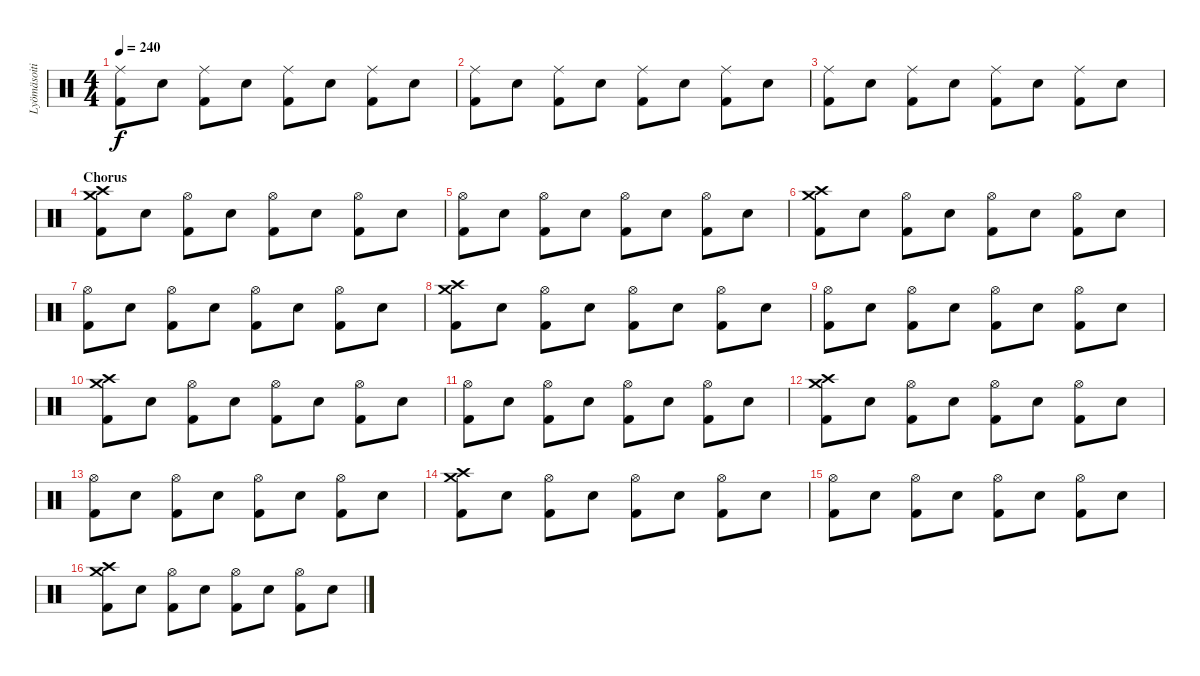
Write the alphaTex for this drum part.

\track ("Lyömäsoitin" "Lyömäsoiti") {instrument percussion}
\staff {score}
\articulation defaults
\ts (4 4)
\tempo 240
\clef neutral
\ks c
("Ride (middle)" "Kick (hit) 2").8{dy f} "Snare (hit) 2".8 ("Ride (middle)" "Kick (hit) 2").8 "Snare (hit) 2".8 ("Ride (middle)" "Kick (hit) 2").8 "Snare (hit) 2".8 ("Ride (middle)" "Kick (hit) 2").8 "Snare (hit) 2".8 |
("Ride (middle)" "Kick (hit) 2").8 "Snare (hit) 2".8 ("Ride (middle)" "Kick (hit) 2").8 "Snare (hit) 2".8 ("Ride (middle)" "Kick (hit) 2").8 "Snare (hit) 2".8 ("Ride (middle)" "Kick (hit) 2").8 "Snare (hit) 2".8 |
("Ride (middle)" "Kick (hit) 2").8 "Snare (hit) 2".8 ("Ride (middle)" "Kick (hit) 2").8 "Snare (hit) 2".8 ("Ride (middle)" "Kick (hit) 2").8 "Snare (hit) 2".8 ("Ride (middle)" "Kick (hit) 2").8 "Snare (hit) 2".8 |
\section ("" "Chorus")
("Crash high (hit)" "Crash medium (hit)" "Kick (hit) 2").8 "Snare (hit) 2".8 ("Hi-Hat (open)" "Kick (hit) 2").8 "Snare (hit) 2".8 ("Hi-Hat (open)" "Kick (hit) 2").8 "Snare (hit) 2".8 ("Hi-Hat (open)" "Kick (hit) 2").8 "Snare (hit) 2".8 |
("Hi-Hat (open)" "Kick (hit) 2").8 "Snare (hit) 2".8 ("Hi-Hat (open)" "Kick (hit) 2").8 "Snare (hit) 2".8 ("Hi-Hat (open)" "Kick (hit) 2").8 "Snare (hit) 2".8 ("Hi-Hat (open)" "Kick (hit) 2").8 "Snare (hit) 2".8 |
("Crash high (hit)" "Crash medium (hit)" "Kick (hit) 2").8 "Snare (hit) 2".8 ("Hi-Hat (open)" "Kick (hit) 2").8 "Snare (hit) 2".8 ("Hi-Hat (open)" "Kick (hit) 2").8 "Snare (hit) 2".8 ("Hi-Hat (open)" "Kick (hit) 2").8 "Snare (hit) 2".8 |
("Hi-Hat (open)" "Kick (hit) 2").8 "Snare (hit) 2".8 ("Hi-Hat (open)" "Kick (hit) 2").8 "Snare (hit) 2".8 ("Hi-Hat (open)" "Kick (hit) 2").8 "Snare (hit) 2".8 ("Hi-Hat (open)" "Kick (hit) 2").8 "Snare (hit) 2".8 |
("Crash high (hit)" "Crash medium (hit)" "Kick (hit) 2").8 "Snare (hit) 2".8 ("Hi-Hat (open)" "Kick (hit) 2").8 "Snare (hit) 2".8 ("Hi-Hat (open)" "Kick (hit) 2").8 "Snare (hit) 2".8 ("Hi-Hat (open)" "Kick (hit) 2").8 "Snare (hit) 2".8 |
("Hi-Hat (open)" "Kick (hit) 2").8 "Snare (hit) 2".8 ("Hi-Hat (open)" "Kick (hit) 2").8 "Snare (hit) 2".8 ("Hi-Hat (open)" "Kick (hit) 2").8 "Snare (hit) 2".8 ("Hi-Hat (open)" "Kick (hit) 2").8 "Snare (hit) 2".8 |
("Crash high (hit)" "Crash medium (hit)" "Kick (hit) 2").8 "Snare (hit) 2".8 ("Hi-Hat (open)" "Kick (hit) 2").8 "Snare (hit) 2".8 ("Hi-Hat (open)" "Kick (hit) 2").8 "Snare (hit) 2".8 ("Hi-Hat (open)" "Kick (hit) 2").8 "Snare (hit) 2".8 |
("Hi-Hat (open)" "Kick (hit) 2").8 "Snare (hit) 2".8 ("Hi-Hat (open)" "Kick (hit) 2").8 "Snare (hit) 2".8 ("Hi-Hat (open)" "Kick (hit) 2").8 "Snare (hit) 2".8 ("Hi-Hat (open)" "Kick (hit) 2").8 "Snare (hit) 2".8 |
("Crash high (hit)" "Crash medium (hit)" "Kick (hit) 2").8 "Snare (hit) 2".8 ("Hi-Hat (open)" "Kick (hit) 2").8 "Snare (hit) 2".8 ("Hi-Hat (open)" "Kick (hit) 2").8 "Snare (hit) 2".8 ("Hi-Hat (open)" "Kick (hit) 2").8 "Snare (hit) 2".8 |
("Hi-Hat (open)" "Kick (hit) 2").8 "Snare (hit) 2".8 ("Hi-Hat (open)" "Kick (hit) 2").8 "Snare (hit) 2".8 ("Hi-Hat (open)" "Kick (hit) 2").8 "Snare (hit) 2".8 ("Hi-Hat (open)" "Kick (hit) 2").8 "Snare (hit) 2".8 |
("Crash high (hit)" "Crash medium (hit)" "Kick (hit) 2").8 "Snare (hit) 2".8 ("Hi-Hat (open)" "Kick (hit) 2").8 "Snare (hit) 2".8 ("Hi-Hat (open)" "Kick (hit) 2").8 "Snare (hit) 2".8 ("Hi-Hat (open)" "Kick (hit) 2").8 "Snare (hit) 2".8 |
("Hi-Hat (open)" "Kick (hit) 2").8 "Snare (hit) 2".8 ("Hi-Hat (open)" "Kick (hit) 2").8 "Snare (hit) 2".8 ("Hi-Hat (open)" "Kick (hit) 2").8 "Snare (hit) 2".8 ("Hi-Hat (open)" "Kick (hit) 2").8 "Snare (hit) 2".8 |
("Crash high (hit)" "Crash medium (hit)" "Kick (hit) 2").8 "Snare (hit) 2".8 ("Hi-Hat (open)" "Kick (hit) 2").8 "Snare (hit) 2".8 ("Hi-Hat (open)" "Kick (hit) 2").8 "Snare (hit) 2".8 ("Hi-Hat (open)" "Kick (hit) 2").8 "Snare (hit) 2".8
